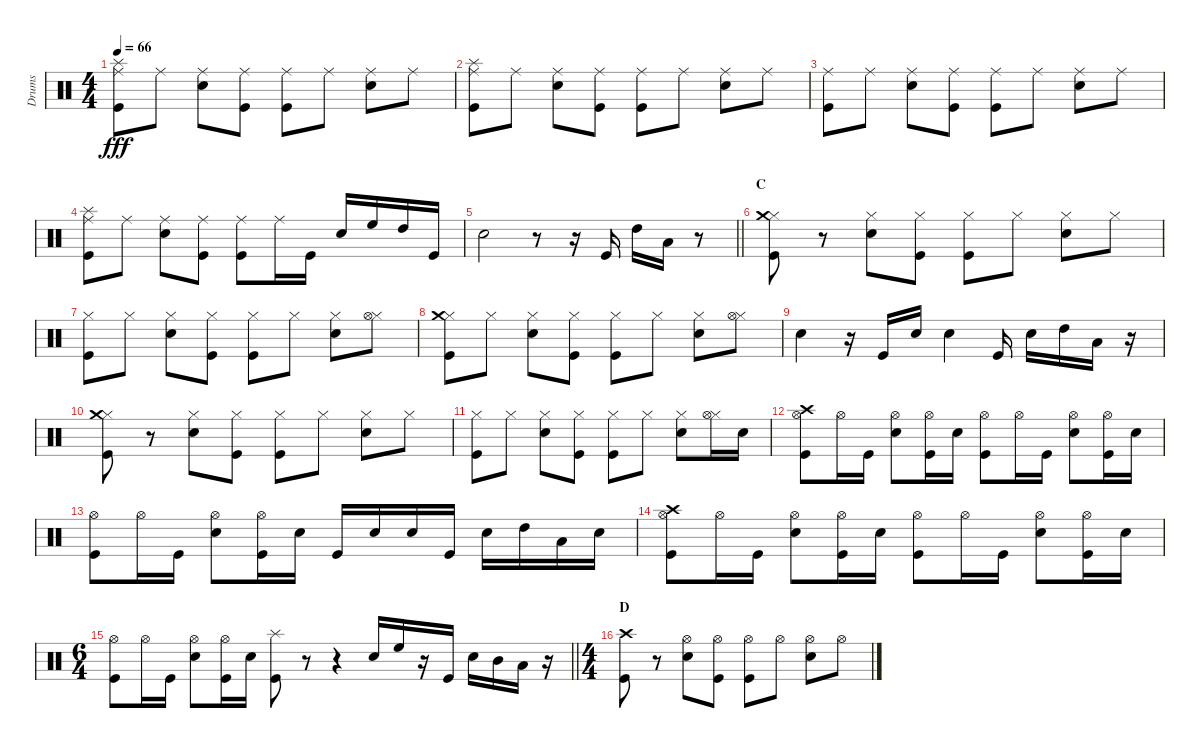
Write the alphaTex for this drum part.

\track ("Drums" "Drums") {instrument percussion}
\staff {score}
\articulation defaults
\ts (4 4)
\tempo 66
\clef neutral
\ks c
("Ride (middle)" "Splash (hit)" "Kick (hit)").8{dy fff} "Ride (middle)".8 ("Ride (middle)" "Snare (hit) 2").8 ("Ride (middle)" "Kick (hit)").8 ("Ride (middle)" "Kick (hit)").8 "Ride (middle)".8 ("Ride (middle)" "Snare (hit) 2").8 "Ride (middle)".8 |
("Ride (middle)" "Splash (hit)" "Kick (hit)").8 "Ride (middle)".8 ("Ride (middle)" "Snare (hit) 2").8 ("Ride (middle)" "Kick (hit)").8 ("Ride (middle)" "Kick (hit)").8 "Ride (middle)".8 ("Ride (middle)" "Snare (hit) 2").8 "Ride (middle)".8 |
("Ride (middle)" "Kick (hit)").8 "Ride (middle)".8 ("Ride (middle)" "Snare (hit) 2").8 ("Ride (middle)" "Kick (hit)").8 ("Ride (middle)" "Kick (hit)").8 "Ride (middle)".8 ("Ride (middle)" "Snare (hit) 2").8 "Ride (middle)".8 |
("Ride (middle)" "Splash (hit)" "Kick (hit)").8 "Ride (middle)".8 ("Ride (middle)" "Snare (hit) 2").8 ("Ride (middle)" "Kick (hit)").8 ("Ride (middle)" "Kick (hit)").8 "Ride (middle)".16 "Kick (hit)".16 "Snare (hit) 2".16 "High Floor Tom (hit)".16 "High Tom (hit)".16 "Kick (hit)".16 |
\barLineRight lightlight "Snare (hit) 2".2
r.8 r.16 "Kick (hit)".16 "High Tom (hit)".16 "Low Tom (hit)".16 r.8 |
\section ("" "C")
("Hi-Hat (closed)" "Crash medium (hit)" "Kick (hit)").8 r.8 ("Hi-Hat (closed)" "Snare (hit) 2").8 ("Hi-Hat (closed)" "Kick (hit)").8 ("Hi-Hat (closed)" "Kick (hit)").8 "Hi-Hat (closed)".8 ("Hi-Hat (closed)" "Snare (hit) 2").8 "Hi-Hat (closed)".8 |
("Hi-Hat (closed)" "Kick (hit)").8 "Hi-Hat (closed)".8 ("Hi-Hat (closed)" "Snare (hit) 2").8 ("Hi-Hat (closed)" "Kick (hit)").8 ("Hi-Hat (closed)" "Kick (hit)").8 "Hi-Hat (closed)".8 ("Hi-Hat (closed)" "Snare (hit) 2").8 ("Hi-Hat (closed)" "Hi-Hat (open)").8 |
("Hi-Hat (closed)" "Crash medium (hit)" "Kick (hit)").8 "Hi-Hat (closed)".8 ("Hi-Hat (closed)" "Snare (hit) 2").8 ("Hi-Hat (closed)" "Kick (hit)").8 ("Hi-Hat (closed)" "Kick (hit)").8 "Hi-Hat (closed)".8 ("Hi-Hat (closed)" "Snare (hit) 2").8 ("Hi-Hat (closed)" "Hi-Hat (open)").8 |
"Snare (hit) 2".4 r.16 "Kick (hit)".16 "Snare (hit) 2".16 "Snare (hit) 2".4 "Kick (hit)".16 "Snare (hit) 2".16 "High Tom (hit)".16 "Low Tom (hit)".16 r.16 |
("Hi-Hat (closed)" "Crash medium (hit)" "Kick (hit)").8 r.8 ("Hi-Hat (closed)" "Snare (hit) 2").8 ("Hi-Hat (closed)" "Kick (hit)").8 ("Hi-Hat (closed)" "Kick (hit)").8 "Hi-Hat (closed)".8 ("Hi-Hat (closed)" "Snare (hit) 2").8 "Hi-Hat (closed)".8 |
("Hi-Hat (closed)" "Kick (hit)").8 "Hi-Hat (closed)".8 ("Hi-Hat (closed)" "Snare (hit) 2").8 ("Hi-Hat (closed)" "Kick (hit)").8 ("Hi-Hat (closed)" "Kick (hit)").8 "Hi-Hat (closed)".8 ("Hi-Hat (closed)" "Snare (hit) 2").8 ("Hi-Hat (closed)" "Hi-Hat (open)").16 "Snare (hit) 2".16 |
("Hi-Hat (open)" "Crash high (hit)" "Kick (hit)").8 "Hi-Hat (open)".16 "Kick (hit)".16 ("Hi-Hat (open)" "Snare (hit) 2").8 ("Hi-Hat (open)" "Kick (hit)").16 "Snare (hit) 2".16 ("Hi-Hat (open)" "Kick (hit)").8 "Hi-Hat (open)".16 "Kick (hit)".16 ("Hi-Hat (open)" "Snare (hit) 2").8 ("Hi-Hat (open)" "Kick (hit)").16 "Snare (hit) 2".16 |
("Hi-Hat (open)" "Kick (hit)").8 "Hi-Hat (open)".16 "Kick (hit)".16 ("Hi-Hat (open)" "Snare (hit) 2").8 ("Hi-Hat (open)" "Kick (hit)").16 "Snare (hit) 2".16 "Kick (hit)".16 "Snare (hit) 2".16 "Snare (hit) 2".16 "Kick (hit)".16 "Snare (hit) 2".16 "High Tom (hit)".16 "Low Tom (hit)".16 "Snare (hit) 2".16 |
("Hi-Hat (open)" "Crash high (hit)" "Kick (hit)").8 "Hi-Hat (open)".16 "Kick (hit)".16 ("Hi-Hat (open)" "Snare (hit) 2").8 ("Hi-Hat (open)" "Kick (hit)").16 "Snare (hit) 2".16 ("Hi-Hat (open)" "Kick (hit)").8 "Hi-Hat (open)".16 "Kick (hit)".16 ("Hi-Hat (open)" "Snare (hit) 2").8 ("Hi-Hat (open)" "Kick (hit)").16 "Snare (hit) 2".16 |
\ts (6 4)
\barLineRight lightlight
("Hi-Hat (open)" "Kick (hit)").8 "Hi-Hat (open)".16 "Kick (hit)".16 ("Hi-Hat (open)" "Snare (hit) 2").8 ("Hi-Hat (open)" "Kick (hit)").16 "Snare (hit) 2".16 ("Splash (hit)" "Kick (hit)").8 r.8 r.4 "Snare (hit) 2".16 "High Floor Tom (hit)".16 r.16 "Kick (hit)".16 "Snare (hit) 2".16 "Mid Tom (hit)".16 "Low Tom (hit)".16 r.16 |
\ts (4 4)
\section ("" "D")
("Crash high (hit)" "Kick (hit)").8 r.8 ("Hi-Hat (open)" "Snare (hit) 2").8 ("Hi-Hat (open)" "Kick (hit)").8 ("Hi-Hat (open)" "Kick (hit)").8 "Hi-Hat (open)".8 ("Hi-Hat (open)" "Snare (hit) 2").8 "Hi-Hat (open)".8
